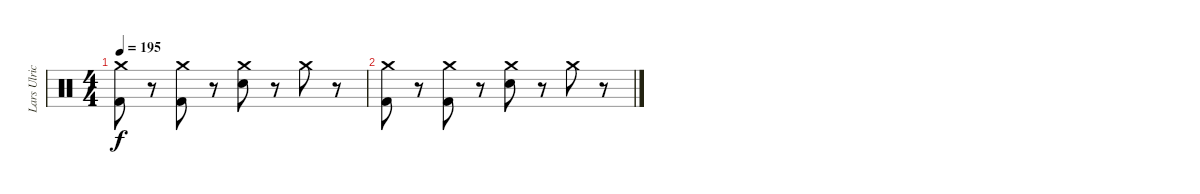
\track ("Lars Ulrich" "Lars Ulric") {instrument percussion}
\staff {score}
\articulation defaults
\ts (4 4)
\tempo 195
\clef neutral
\ks c
("Crash medium (hit)" "Kick (hit) 2").8{dy f} r.8 ("Crash medium (hit)" "Kick (hit) 2").8 r.8 ("Crash medium (hit)" "Electric Snare (hit)").8 r.8 "Crash medium (hit)".8 r.8 |
("Crash medium (hit)" "Kick (hit) 2").8 r.8 ("Crash medium (hit)" "Kick (hit) 2").8 r.8 ("Crash medium (hit)" "Electric Snare (hit)").8 r.8 "Crash medium (hit)".8 r.8
